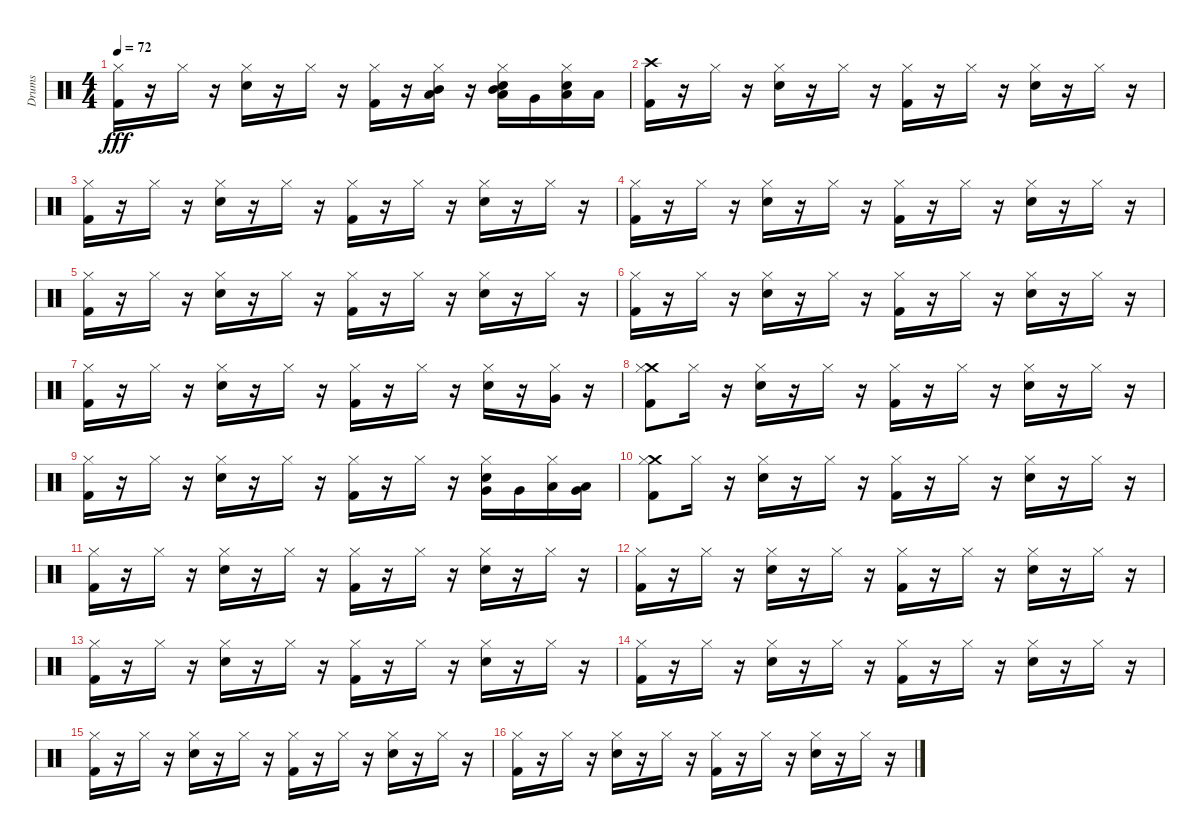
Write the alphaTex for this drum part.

\track ("Drums" "Drums") {instrument percussion}
\staff {score}
\articulation defaults
\ts (4 4)
\tempo 72
\clef neutral
\ks c
("Kick (hit) 2" "Hi-Hat (closed)").16{dy fff} r.16 "Hi-Hat (closed)".16 r.16 ("Snare (hit) 2" "Hi-Hat (closed)").16 r.16 "Hi-Hat (closed)".16 r.16 ("Hi-Hat (closed)" "Kick (hit) 2").16 r.16 ("Mid Tom (hit)" "Hi-Hat (closed)" "Low Tom (hit)").16 r.16 ("Mid Tom (hit)" "Low Tom (hit)" "Hi-Hat (closed)" "Snare (hit) 2").16 "Very Low Tom (hit)".16 ("Hi-Hat (closed)" "Snare (hit) 2" "Low Floor Tom (hit)").16 "Low Floor Tom (hit)".16 |
("Crash high (hit)" "Kick (hit) 2").16 r.16 "Hi-Hat (closed)".16 r.16 ("Hi-Hat (closed)" "Snare (hit) 2").16 r.16 "Hi-Hat (closed)".16 r.16 ("Hi-Hat (closed)" "Kick (hit) 2").16 r.16 "Hi-Hat (closed)".16 r.16 ("Snare (hit) 2" "Hi-Hat (closed)").16 r.16 "Hi-Hat (closed)".16 r.16 |
("Kick (hit) 2" "Hi-Hat (closed)").16 r.16 "Hi-Hat (closed)".16 r.16 ("Snare (hit) 2" "Hi-Hat (closed)").16 r.16 "Hi-Hat (closed)".16 r.16 ("Kick (hit) 2" "Hi-Hat (closed)").16 r.16 "Hi-Hat (closed)".16 r.16 ("Snare (hit) 2" "Hi-Hat (closed)").16 r.16 "Hi-Hat (closed)".16 r.16 |
("Kick (hit) 2" "Hi-Hat (closed)").16 r.16 "Hi-Hat (closed)".16 r.16 ("Hi-Hat (closed)" "Snare (hit) 2").16 r.16 "Hi-Hat (closed)".16 r.16 ("Hi-Hat (closed)" "Kick (hit) 2").16 r.16 "Hi-Hat (closed)".16 r.16 ("Hi-Hat (closed)" "Snare (hit) 2").16 r.16 "Hi-Hat (closed)".16 r.16 |
("Kick (hit) 2" "Hi-Hat (closed)").16 r.16 "Hi-Hat (closed)".16 r.16 ("Snare (hit) 2" "Hi-Hat (closed)").16 r.16 "Hi-Hat (closed)".16 r.16 ("Hi-Hat (closed)" "Kick (hit) 2").16 r.16 "Hi-Hat (closed)".16 r.16 ("Snare (hit) 2" "Hi-Hat (closed)").16 r.16 "Hi-Hat (closed)".16 r.16 |
("Kick (hit) 2" "Hi-Hat (closed)").16 r.16 "Hi-Hat (closed)".16 r.16 ("Snare (hit) 2" "Hi-Hat (closed)").16 r.16 "Hi-Hat (closed)".16 r.16 ("Hi-Hat (closed)" "Kick (hit) 2").16 r.16 "Hi-Hat (closed)".16 r.16 ("Hi-Hat (closed)" "Snare (hit) 2").16 r.16 "Hi-Hat (closed)".16 r.16 |
("Hi-Hat (closed)" "Kick (hit) 2").16 r.16 "Hi-Hat (closed)".16 r.16 ("Hi-Hat (closed)" "Snare (hit) 2").16 r.16 "Hi-Hat (closed)".16 r.16 ("Kick (hit) 2" "Hi-Hat (closed)").16 r.16 "Hi-Hat (closed)".16 r.16 ("Snare (hit) 2" "Hi-Hat (closed)").16 r.16 ("Very Low Tom (hit)" "Hi-Hat (closed)").16 r.16 |
("Crash medium (hit)" "Hi-Hat (closed)" "Kick (hit) 2").8 "Hi-Hat (closed)".16 r.16 ("Hi-Hat (closed)" "Snare (hit) 2").16 r.16 "Hi-Hat (closed)".16 r.16 ("Hi-Hat (closed)" "Kick (hit) 2").16 r.16 "Hi-Hat (closed)".16 r.16 ("Snare (hit) 2" "Hi-Hat (closed)").16 r.16 "Hi-Hat (closed)".16 r.16 |
("Hi-Hat (closed)" "Kick (hit) 2").16 r.16 "Hi-Hat (closed)".16 r.16 ("Hi-Hat (closed)" "Snare (hit) 2").16 r.16 "Hi-Hat (closed)".16 r.16 ("Hi-Hat (closed)" "Kick (hit) 2").16 r.16 "Hi-Hat (closed)".16 r.16 ("Snare (hit) 2" "Hi-Hat (closed)" "Very Low Tom (hit)").16 "Very Low Tom (hit)".16 ("Hi-Hat (closed)" "Low Floor Tom (hit)").16 ("Low Floor Tom (hit)" "Very Low Tom (hit)").16 |
("Crash medium (hit)" "Kick (hit) 2" "Hi-Hat (closed)").8 "Hi-Hat (closed)".16 r.16 ("Snare (hit) 2" "Hi-Hat (closed)").16 r.16 "Hi-Hat (closed)".16 r.16 ("Hi-Hat (closed)" "Kick (hit) 2").16 r.16 "Hi-Hat (closed)".16 r.16 ("Snare (hit) 2" "Hi-Hat (closed)").16 r.16 "Hi-Hat (closed)".16 r.16 |
("Kick (hit) 2" "Hi-Hat (closed)").16 r.16 "Hi-Hat (closed)".16 r.16 ("Hi-Hat (closed)" "Snare (hit) 2").16 r.16 "Hi-Hat (closed)".16 r.16 ("Hi-Hat (closed)" "Kick (hit) 2").16 r.16 "Hi-Hat (closed)".16 r.16 ("Snare (hit) 2" "Hi-Hat (closed)").16 r.16 "Hi-Hat (closed)".16 r.16 |
("Kick (hit) 2" "Hi-Hat (closed)").16 r.16 "Hi-Hat (closed)".16 r.16 ("Hi-Hat (closed)" "Snare (hit) 2").16 r.16 "Hi-Hat (closed)".16 r.16 ("Kick (hit) 2" "Hi-Hat (closed)").16 r.16 "Hi-Hat (closed)".16 r.16 ("Snare (hit) 2" "Hi-Hat (closed)").16 r.16 "Hi-Hat (closed)".16 r.16 |
("Kick (hit) 2" "Hi-Hat (closed)").16 r.16 "Hi-Hat (closed)".16 r.16 ("Snare (hit) 2" "Hi-Hat (closed)").16 r.16 "Hi-Hat (closed)".16 r.16 ("Kick (hit) 2" "Hi-Hat (closed)").16 r.16 "Hi-Hat (closed)".16 r.16 ("Hi-Hat (closed)" "Snare (hit) 2").16 r.16 "Hi-Hat (closed)".16 r.16 |
("Hi-Hat (closed)" "Kick (hit) 2").16 r.16 "Hi-Hat (closed)".16 r.16 ("Snare (hit) 2" "Hi-Hat (closed)").16 r.16 "Hi-Hat (closed)".16 r.16 ("Kick (hit) 2" "Hi-Hat (closed)").16 r.16 "Hi-Hat (closed)".16 r.16 ("Hi-Hat (closed)" "Snare (hit) 2").16 r.16 "Hi-Hat (closed)".16 r.16 |
("Kick (hit) 2" "Hi-Hat (closed)").16 r.16 "Hi-Hat (closed)".16 r.16 ("Snare (hit) 2" "Hi-Hat (closed)").16 r.16 "Hi-Hat (closed)".16 r.16 ("Hi-Hat (closed)" "Kick (hit) 2").16 r.16 "Hi-Hat (closed)".16 r.16 ("Hi-Hat (closed)" "Snare (hit) 2").16 r.16 "Hi-Hat (closed)".16 r.16 |
("Hi-Hat (closed)" "Kick (hit) 2").16 r.16 "Hi-Hat (closed)".16 r.16 ("Hi-Hat (closed)" "Snare (hit) 2").16 r.16 "Hi-Hat (closed)".16 r.16 ("Hi-Hat (closed)" "Kick (hit) 2").16 r.16 "Hi-Hat (closed)".16 r.16 ("Hi-Hat (closed)" "Snare (hit) 2").16 r.16 "Hi-Hat (closed)".16 r.16
